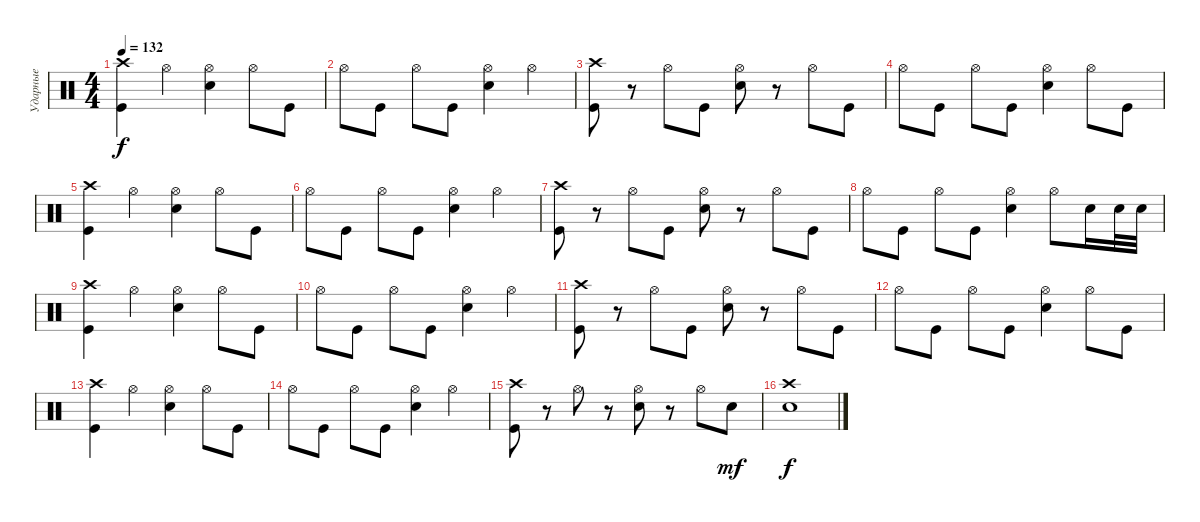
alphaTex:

\track ("Ударные" "Ударные") {instrument percussion}
\staff {score}
\articulation defaults
\ts (4 4)
\tempo 132
\clef neutral
\ks c
("Kick (hit)" "Crash high (hit)").4{dy f} "Hi-Hat (open)".4 ("Snare (hit) 2" "Hi-Hat (open)").4 "Hi-Hat (open)".8 "Kick (hit)".8 |
"Hi-Hat (open)".8 "Kick (hit)".8 "Hi-Hat (open)".8 "Kick (hit)".8 ("Snare (hit) 2" "Hi-Hat (open)").4 "Hi-Hat (open)".4 |
("Crash high (hit)" "Kick (hit)").8 r.8 "Hi-Hat (open)".8 "Kick (hit)".8 ("Hi-Hat (open)" "Snare (hit) 2").8 r.8 "Hi-Hat (open)".8 "Kick (hit)".8 |
"Hi-Hat (open)".8 "Kick (hit)".8 "Hi-Hat (open)".8 "Kick (hit)".8 ("Snare (hit) 2" "Hi-Hat (open)").4 "Hi-Hat (open)".8 "Kick (hit)".8 |
("Kick (hit)" "Crash high (hit)").4 "Hi-Hat (open)".4 ("Snare (hit) 2" "Hi-Hat (open)").4 "Hi-Hat (open)".8 "Kick (hit)".8 |
"Hi-Hat (open)".8 "Kick (hit)".8 "Hi-Hat (open)".8 "Kick (hit)".8 ("Snare (hit) 2" "Hi-Hat (open)").4 "Hi-Hat (open)".4 |
("Crash high (hit)" "Kick (hit)").8 r.8 "Hi-Hat (open)".8 "Kick (hit)".8 ("Hi-Hat (open)" "Snare (hit) 2").8 r.8 "Hi-Hat (open)".8 "Kick (hit)".8 |
"Hi-Hat (open)".8 "Kick (hit)".8 "Hi-Hat (open)".8 "Kick (hit)".8 ("Snare (hit) 2" "Hi-Hat (open)").4 "Hi-Hat (open)".8 "Snare (hit) 2".16 "Snare (hit) 2".32 "Snare (hit) 2".32 |
("Kick (hit)" "Crash high (hit)").4 "Hi-Hat (open)".4 ("Snare (hit) 2" "Hi-Hat (open)").4 "Hi-Hat (open)".8 "Kick (hit)".8 |
"Hi-Hat (open)".8 "Kick (hit)".8 "Hi-Hat (open)".8 "Kick (hit)".8 ("Snare (hit) 2" "Hi-Hat (open)").4 "Hi-Hat (open)".4 |
("Crash high (hit)" "Kick (hit)").8 r.8 "Hi-Hat (open)".8 "Kick (hit)".8 ("Hi-Hat (open)" "Snare (hit) 2").8 r.8 "Hi-Hat (open)".8 "Kick (hit)".8 |
"Hi-Hat (open)".8 "Kick (hit)".8 "Hi-Hat (open)".8 "Kick (hit)".8 ("Snare (hit) 2" "Hi-Hat (open)").4 "Hi-Hat (open)".8 "Kick (hit)".8 |
("Kick (hit)" "Crash high (hit)").4 "Hi-Hat (open)".4 ("Snare (hit) 2" "Hi-Hat (open)").4 "Hi-Hat (open)".8 "Kick (hit)".8 |
"Hi-Hat (open)".8 "Kick (hit)".8 "Hi-Hat (open)".8 "Kick (hit)".8 ("Snare (hit) 2" "Hi-Hat (open)").4 "Hi-Hat (open)".4 |
("Crash high (hit)" "Kick (hit)").8 r.8 "Hi-Hat (open)".8 r.8 ("Hi-Hat (open)" "Snare (hit) 2").8 r.8 "Hi-Hat (open)".8 "Snare (hit) 2".8{dy mf} |
("Snare (hit) 2" "Crash high (hit)").1{dy f}
